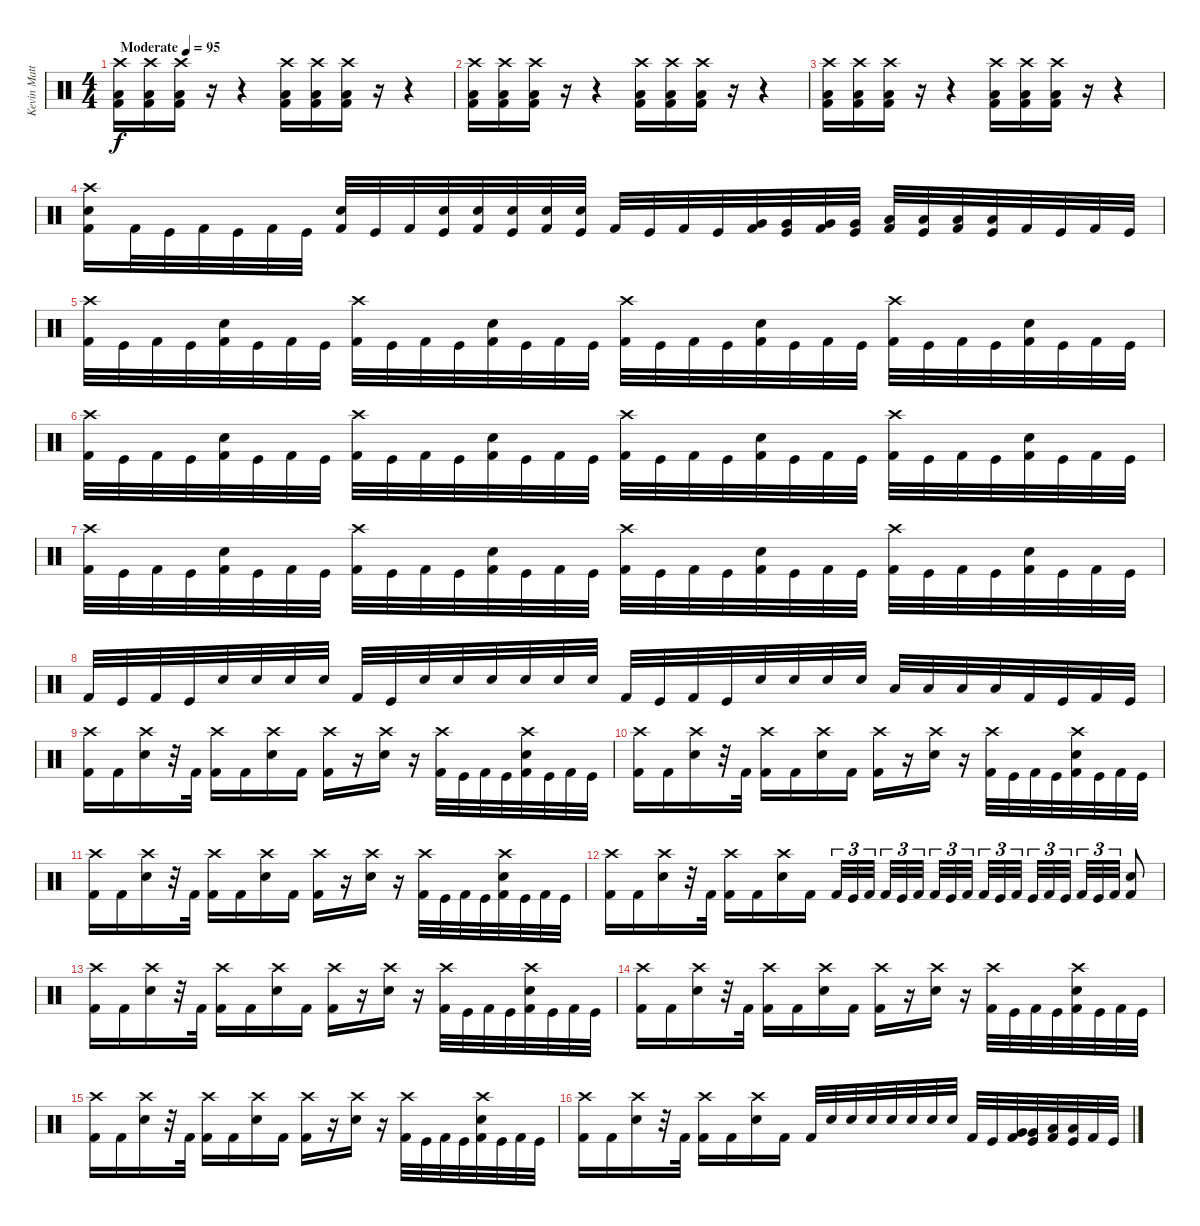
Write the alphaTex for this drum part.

\track ("Kevin Matthews (Drums)" "Kevin Matt") {instrument percussion}
\staff {score}
\articulation defaults
\ts (4 4)
\tempo (95 "Moderate")
\clef neutral
\ks c
("Crash high (hit)" "Low Floor Tom (hit)" "Kick (hit) 2").16{dy f} ("Crash high (hit)" "Low Floor Tom (hit)" "Kick (hit) 2").16 ("Crash high (hit)" "Low Floor Tom (hit)" "Kick (hit) 2").16 r.16 r.4 ("Crash high (hit)" "Low Floor Tom (hit)" "Kick (hit) 2").16 ("Crash high (hit)" "Low Floor Tom (hit)" "Kick (hit) 2").16 ("Crash high (hit)" "Low Floor Tom (hit)" "Kick (hit) 2").16 r.16 r.4 |
("Crash high (hit)" "Low Floor Tom (hit)" "Kick (hit) 2").16 ("Crash high (hit)" "Low Floor Tom (hit)" "Kick (hit) 2").16 ("Crash high (hit)" "Low Floor Tom (hit)" "Kick (hit) 2").16 r.16 r.4 ("Crash high (hit)" "Low Floor Tom (hit)" "Kick (hit) 2").16 ("Crash high (hit)" "Low Floor Tom (hit)" "Kick (hit) 2").16 ("Crash high (hit)" "Low Floor Tom (hit)" "Kick (hit) 2").16 r.16 r.4 |
("Crash high (hit)" "Low Floor Tom (hit)" "Kick (hit) 2").16 ("Crash high (hit)" "Low Floor Tom (hit)" "Kick (hit) 2").16 ("Crash high (hit)" "Low Floor Tom (hit)" "Kick (hit) 2").16 r.16 r.4 ("Crash high (hit)" "Low Floor Tom (hit)" "Kick (hit) 2").16 ("Crash high (hit)" "Low Floor Tom (hit)" "Kick (hit) 2").16 ("Crash high (hit)" "Low Floor Tom (hit)" "Kick (hit) 2").16 r.16 r.4 |
("Crash high (hit)" "Electric Snare (hit)" "Kick (hit) 2").16 "Kick (hit) 2".32 "Kick (hit)".32 "Kick (hit) 2".32 "Kick (hit)".32 "Kick (hit) 2".32 "Kick (hit)".32 ("Electric Snare (hit)" "Kick (hit) 2").32 "Kick (hit)".32 "Kick (hit) 2".32 ("Electric Snare (hit)" "Kick (hit)").32 ("Electric Snare (hit)" "Kick (hit) 2").32 ("Electric Snare (hit)" "Kick (hit)").32 ("Electric Snare (hit)" "Kick (hit) 2").32 ("Electric Snare (hit)" "Kick (hit)").32 "Kick (hit) 2".32 "Kick (hit)".32 "Kick (hit) 2".32 "Kick (hit)".32 ("Very Low Tom (hit)" "Kick (hit) 2").32 ("Very Low Tom (hit)" "Kick (hit)").32 ("Very Low Tom (hit)" "Kick (hit) 2").32 ("Very Low Tom (hit)" "Kick (hit)").32 ("Low Floor Tom (hit)" "Kick (hit) 2").32 ("Low Floor Tom (hit)" "Kick (hit)").32 ("Low Floor Tom (hit)" "Kick (hit) 2").32 ("Low Floor Tom (hit)" "Kick (hit)").32 "Kick (hit) 2".32 "Kick (hit)".32 "Kick (hit) 2".32 "Kick (hit)".32 |
("Crash high (hit)" "Kick (hit) 2").32 "Kick (hit)".32 "Kick (hit) 2".32 "Kick (hit)".32 ("Electric Snare (hit)" "Kick (hit) 2").32 "Kick (hit)".32 "Kick (hit) 2".32 "Kick (hit)".32 ("Crash high (hit)" "Kick (hit) 2").32 "Kick (hit)".32 "Kick (hit) 2".32 "Kick (hit)".32 ("Electric Snare (hit)" "Kick (hit) 2").32 "Kick (hit)".32 "Kick (hit) 2".32 "Kick (hit)".32 ("Crash high (hit)" "Kick (hit) 2").32 "Kick (hit)".32 "Kick (hit) 2".32 "Kick (hit)".32 ("Electric Snare (hit)" "Kick (hit) 2").32 "Kick (hit)".32 "Kick (hit) 2".32 "Kick (hit)".32 ("Crash high (hit)" "Kick (hit) 2").32 "Kick (hit)".32 "Kick (hit) 2".32 "Kick (hit)".32 ("Electric Snare (hit)" "Kick (hit) 2").32 "Kick (hit)".32 "Kick (hit) 2".32 "Kick (hit)".32 |
("Crash high (hit)" "Kick (hit) 2").32 "Kick (hit)".32 "Kick (hit) 2".32 "Kick (hit)".32 ("Electric Snare (hit)" "Kick (hit) 2").32 "Kick (hit)".32 "Kick (hit) 2".32 "Kick (hit)".32 ("Crash high (hit)" "Kick (hit) 2").32 "Kick (hit)".32 "Kick (hit) 2".32 "Kick (hit)".32 ("Electric Snare (hit)" "Kick (hit) 2").32 "Kick (hit)".32 "Kick (hit) 2".32 "Kick (hit)".32 ("Crash high (hit)" "Kick (hit) 2").32 "Kick (hit)".32 "Kick (hit) 2".32 "Kick (hit)".32 ("Electric Snare (hit)" "Kick (hit) 2").32 "Kick (hit)".32 "Kick (hit) 2".32 "Kick (hit)".32 ("Crash high (hit)" "Kick (hit) 2").32 "Kick (hit)".32 "Kick (hit) 2".32 "Kick (hit)".32 ("Electric Snare (hit)" "Kick (hit) 2").32 "Kick (hit)".32 "Kick (hit) 2".32 "Kick (hit)".32 |
("Crash high (hit)" "Kick (hit) 2").32 "Kick (hit)".32 "Kick (hit) 2".32 "Kick (hit)".32 ("Electric Snare (hit)" "Kick (hit) 2").32 "Kick (hit)".32 "Kick (hit) 2".32 "Kick (hit)".32 ("Crash high (hit)" "Kick (hit) 2").32 "Kick (hit)".32 "Kick (hit) 2".32 "Kick (hit)".32 ("Electric Snare (hit)" "Kick (hit) 2").32 "Kick (hit)".32 "Kick (hit) 2".32 "Kick (hit)".32 ("Crash high (hit)" "Kick (hit) 2").32 "Kick (hit)".32 "Kick (hit) 2".32 "Kick (hit)".32 ("Electric Snare (hit)" "Kick (hit) 2").32 "Kick (hit)".32 "Kick (hit) 2".32 "Kick (hit)".32 ("Crash high (hit)" "Kick (hit) 2").32 "Kick (hit)".32 "Kick (hit) 2".32 "Kick (hit)".32 ("Electric Snare (hit)" "Kick (hit) 2").32 "Kick (hit)".32 "Kick (hit) 2".32 "Kick (hit)".32 |
"Kick (hit) 2".32 "Kick (hit)".32 "Kick (hit) 2".32 "Kick (hit)".32 "Electric Snare (hit)".32 "Electric Snare (hit)".32 "Electric Snare (hit)".32 "Electric Snare (hit)".32 "Kick (hit) 2".32 "Kick (hit)".32 "Electric Snare (hit)".32 "Electric Snare (hit)".32 "Electric Snare (hit)".32 "Electric Snare (hit)".32 "Electric Snare (hit)".32 "Electric Snare (hit)".32 "Kick (hit) 2".32 "Kick (hit)".32 "Kick (hit) 2".32 "Kick (hit)".32 "Electric Snare (hit)".32 "Electric Snare (hit)".32 "Electric Snare (hit)".32 "Electric Snare (hit)".32 "Low Floor Tom (hit)".32 "Low Floor Tom (hit)".32 "Low Floor Tom (hit)".32 "Low Floor Tom (hit)".32 "Kick (hit) 2".32 "Kick (hit)".32 "Kick (hit) 2".32 "Kick (hit)".32 |
("Crash high (hit)" "Kick (hit) 2").16 "Kick (hit) 2".16 ("Crash high (hit)" "Electric Snare (hit)").16 r.32 "Kick (hit) 2".32 ("Crash high (hit)" "Kick (hit) 2").16 "Kick (hit) 2".16 ("Crash high (hit)" "Electric Snare (hit)").16 "Kick (hit) 2".16 ("Crash high (hit)" "Kick (hit) 2").16 r.16 ("Crash high (hit)" "Electric Snare (hit)").16 r.16 ("Crash high (hit)" "Kick (hit) 2").32 "Kick (hit)".32 "Kick (hit) 2".32 "Kick (hit)".32 ("Crash high (hit)" "Electric Snare (hit)" "Kick (hit) 2").32 "Kick (hit)".32 "Kick (hit) 2".32 "Kick (hit)".32 |
("Crash high (hit)" "Kick (hit) 2").16 "Kick (hit) 2".16 ("Crash high (hit)" "Electric Snare (hit)").16 r.32 "Kick (hit) 2".32 ("Crash high (hit)" "Kick (hit) 2").16 "Kick (hit) 2".16 ("Crash high (hit)" "Electric Snare (hit)").16 "Kick (hit) 2".16 ("Crash high (hit)" "Kick (hit) 2").16 r.16 ("Crash high (hit)" "Electric Snare (hit)").16 r.16 ("Crash high (hit)" "Kick (hit) 2").32 "Kick (hit)".32 "Kick (hit) 2".32 "Kick (hit)".32 ("Crash high (hit)" "Electric Snare (hit)" "Kick (hit) 2").32 "Kick (hit)".32 "Kick (hit) 2".32 "Kick (hit)".32 |
("Crash high (hit)" "Kick (hit) 2").16 "Kick (hit) 2".16 ("Crash high (hit)" "Electric Snare (hit)").16 r.32 "Kick (hit) 2".32 ("Crash high (hit)" "Kick (hit) 2").16 "Kick (hit) 2".16 ("Crash high (hit)" "Electric Snare (hit)").16 "Kick (hit) 2".16 ("Crash high (hit)" "Kick (hit) 2").16 r.16 ("Crash high (hit)" "Electric Snare (hit)").16 r.16 ("Crash high (hit)" "Kick (hit) 2").32 "Kick (hit)".32 "Kick (hit) 2".32 "Kick (hit)".32 ("Crash high (hit)" "Electric Snare (hit)" "Kick (hit) 2").32 "Kick (hit)".32 "Kick (hit) 2".32 "Kick (hit)".32 |
("Crash high (hit)" "Kick (hit) 2").16 "Kick (hit) 2".16 ("Crash high (hit)" "Electric Snare (hit)").16 r.32 "Kick (hit) 2".32 ("Crash high (hit)" "Kick (hit) 2").16 "Kick (hit) 2".16 ("Crash high (hit)" "Electric Snare (hit)").16 "Kick (hit) 2".16 "Kick (hit) 2".32{tu (3 2)} "Kick (hit)".32{tu (3 2)} "Kick (hit) 2".32{tu (3 2) beam splitsecondary} "Kick (hit) 2".32{tu (3 2)} "Kick (hit)".32{tu (3 2)} "Kick (hit) 2".32{tu (3 2) beam splitsecondary} "Kick (hit) 2".32{tu (3 2)} "Kick (hit)".32{tu (3 2)} "Kick (hit) 2".32{tu (3 2) beam splitsecondary} "Kick (hit) 2".32{tu (3 2)} "Kick (hit)".32{tu (3 2)} "Kick (hit) 2".32{tu (3 2)} "Kick (hit)".32{tu (3 2)} "Kick (hit) 2".32{tu (3 2)} "Kick (hit)".32{tu (3 2) beam splitsecondary} "Kick (hit) 2".32{tu (3 2)} "Kick (hit)".32{tu (3 2)} "Kick (hit) 2".32{tu (3 2)} ("Electric Snare (hit)" "Kick (hit) 2").8 |
("Crash high (hit)" "Kick (hit) 2").16 "Kick (hit) 2".16 ("Crash high (hit)" "Electric Snare (hit)").16 r.32 "Kick (hit) 2".32 ("Crash high (hit)" "Kick (hit) 2").16 "Kick (hit) 2".16 ("Crash high (hit)" "Electric Snare (hit)").16 "Kick (hit) 2".16 ("Crash high (hit)" "Kick (hit) 2").16 r.16 ("Crash high (hit)" "Electric Snare (hit)").16 r.16 ("Crash high (hit)" "Kick (hit) 2").32 "Kick (hit)".32 "Kick (hit) 2".32 "Kick (hit)".32 ("Crash high (hit)" "Electric Snare (hit)" "Kick (hit) 2").32 "Kick (hit)".32 "Kick (hit) 2".32 "Kick (hit)".32 |
("Crash high (hit)" "Kick (hit) 2").16 "Kick (hit) 2".16 ("Crash high (hit)" "Electric Snare (hit)").16 r.32 "Kick (hit) 2".32 ("Crash high (hit)" "Kick (hit) 2").16 "Kick (hit) 2".16 ("Crash high (hit)" "Electric Snare (hit)").16 "Kick (hit) 2".16 ("Crash high (hit)" "Kick (hit) 2").16 r.16 ("Crash high (hit)" "Electric Snare (hit)").16 r.16 ("Crash high (hit)" "Kick (hit) 2").32 "Kick (hit)".32 "Kick (hit) 2".32 "Kick (hit)".32 ("Crash high (hit)" "Electric Snare (hit)" "Kick (hit) 2").32 "Kick (hit)".32 "Kick (hit) 2".32 "Kick (hit)".32 |
("Crash high (hit)" "Kick (hit) 2").16 "Kick (hit) 2".16 ("Crash high (hit)" "Electric Snare (hit)").16 r.32 "Kick (hit) 2".32 ("Crash high (hit)" "Kick (hit) 2").16 "Kick (hit) 2".16 ("Crash high (hit)" "Electric Snare (hit)").16 "Kick (hit) 2".16 ("Crash high (hit)" "Kick (hit) 2").16 r.16 ("Crash high (hit)" "Electric Snare (hit)").16 r.16 ("Crash high (hit)" "Kick (hit) 2").32 "Kick (hit)".32 "Kick (hit) 2".32 "Kick (hit)".32 ("Crash high (hit)" "Electric Snare (hit)" "Kick (hit) 2").32 "Kick (hit)".32 "Kick (hit) 2".32 "Kick (hit)".32 |
("Crash high (hit)" "Kick (hit) 2").16 "Kick (hit) 2".16 ("Crash high (hit)" "Electric Snare (hit)").16 r.32 "Kick (hit) 2".32 ("Crash high (hit)" "Kick (hit) 2").16 "Kick (hit) 2".16 ("Crash high (hit)" "Electric Snare (hit)").16 "Kick (hit) 2".16 "Kick (hit) 2".32 "Electric Snare (hit)".32 "Electric Snare (hit)".32 "Electric Snare (hit)".32 "Electric Snare (hit)".32 "Electric Snare (hit)".32 "Electric Snare (hit)".32 "Electric Snare (hit)".32 "Kick (hit) 2".32 "Kick (hit)".32 ("Very Low Tom (hit)" "Kick (hit) 2").32 ("Very Low Tom (hit)" "Kick (hit)").32 ("Low Floor Tom (hit)" "Kick (hit) 2").32 ("Low Floor Tom (hit)" "Kick (hit)").32 "Kick (hit) 2".32 "Kick (hit)".32
